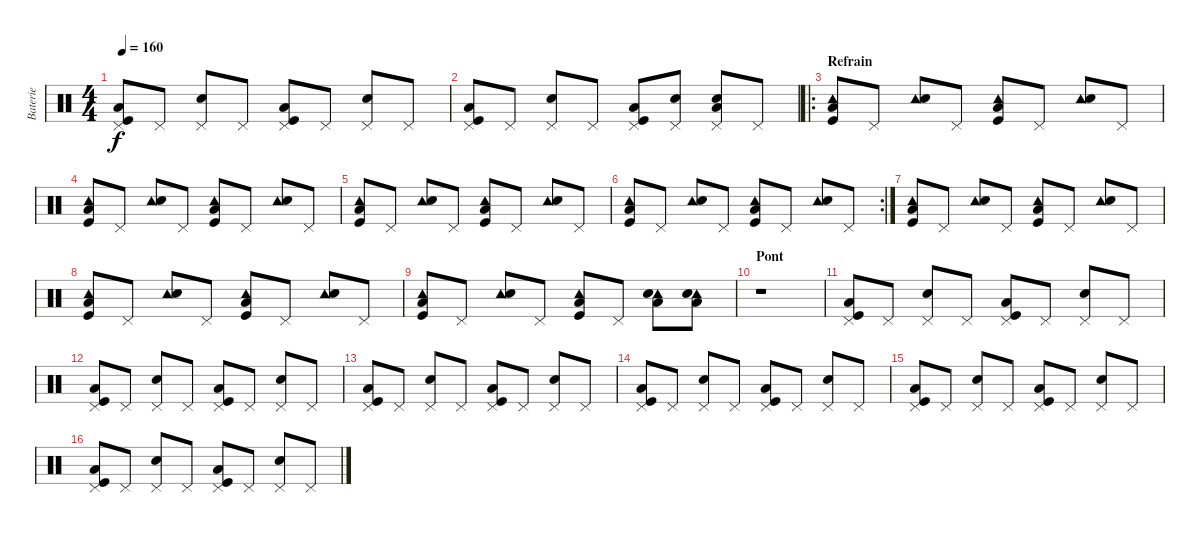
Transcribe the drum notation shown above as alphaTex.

\track ("Baterie" "Baterie") {instrument percussion}
\staff {score}
\articulation defaults
\ts (4 4)
\tempo 160
\clef neutral
\ks c
("Pedal Hi-Hat (hit)" "Low Floor Tom (hit)" "Kick (hit)").8{dy f} "Pedal Hi-Hat (hit)".8 ("Pedal Hi-Hat (hit)" "Electric Snare (hit)").8 "Pedal Hi-Hat (hit)".8 ("Pedal Hi-Hat (hit)" "Low Floor Tom (hit)" "Kick (hit)").8 "Pedal Hi-Hat (hit)".8 ("Pedal Hi-Hat (hit)" "Electric Snare (hit)").8 "Pedal Hi-Hat (hit)".8 |
("Pedal Hi-Hat (hit)" "Low Floor Tom (hit)" "Kick (hit)").8 "Pedal Hi-Hat (hit)".8 ("Pedal Hi-Hat (hit)" "Electric Snare (hit)").8 "Pedal Hi-Hat (hit)".8 ("Pedal Hi-Hat (hit)" "Low Floor Tom (hit)" "Kick (hit)").8 ("Pedal Hi-Hat (hit)" "Electric Snare (hit)").8 ("Pedal Hi-Hat (hit)" "Electric Snare (hit)" "Low Floor Tom (hit)").8 "Pedal Hi-Hat (hit)".8 |
\ro
\section ("" "Refrain")
("Tambourine (hit)" "Low Floor Tom (hit)" "Kick (hit)").8 "Pedal Hi-Hat (hit)".8 ("Tambourine (hit)" "Electric Snare (hit)").8 "Pedal Hi-Hat (hit)".8 ("Tambourine (hit)" "Low Floor Tom (hit)" "Kick (hit)").8 "Pedal Hi-Hat (hit)".8 ("Tambourine (hit)" "Electric Snare (hit)").8 "Pedal Hi-Hat (hit)".8 |
("Tambourine (hit)" "Low Floor Tom (hit)" "Kick (hit)").8 "Pedal Hi-Hat (hit)".8 ("Tambourine (hit)" "Electric Snare (hit)").8 "Pedal Hi-Hat (hit)".8 ("Tambourine (hit)" "Low Floor Tom (hit)" "Kick (hit)").8 "Pedal Hi-Hat (hit)".8 ("Tambourine (hit)" "Electric Snare (hit)").8 "Pedal Hi-Hat (hit)".8 |
("Tambourine (hit)" "Low Floor Tom (hit)" "Kick (hit)").8 "Pedal Hi-Hat (hit)".8 ("Tambourine (hit)" "Electric Snare (hit)").8 "Pedal Hi-Hat (hit)".8 ("Tambourine (hit)" "Low Floor Tom (hit)" "Kick (hit)").8 "Pedal Hi-Hat (hit)".8 ("Tambourine (hit)" "Electric Snare (hit)").8 "Pedal Hi-Hat (hit)".8 |
\rc 2
("Tambourine (hit)" "Low Floor Tom (hit)" "Kick (hit)").8 "Pedal Hi-Hat (hit)".8 ("Tambourine (hit)" "Electric Snare (hit)").8 "Pedal Hi-Hat (hit)".8 ("Tambourine (hit)" "Low Floor Tom (hit)" "Kick (hit)").8 "Pedal Hi-Hat (hit)".8 ("Tambourine (hit)" "Electric Snare (hit)").8 "Pedal Hi-Hat (hit)".8 |
("Tambourine (hit)" "Low Floor Tom (hit)" "Kick (hit)").8 "Pedal Hi-Hat (hit)".8 ("Tambourine (hit)" "Electric Snare (hit)").8 "Pedal Hi-Hat (hit)".8 ("Tambourine (hit)" "Low Floor Tom (hit)" "Kick (hit)").8 "Pedal Hi-Hat (hit)".8 ("Tambourine (hit)" "Electric Snare (hit)").8 "Pedal Hi-Hat (hit)".8 |
("Tambourine (hit)" "Low Floor Tom (hit)" "Kick (hit)").8 "Pedal Hi-Hat (hit)".8 ("Tambourine (hit)" "Electric Snare (hit)").8 "Pedal Hi-Hat (hit)".8 ("Tambourine (hit)" "Low Floor Tom (hit)" "Kick (hit)").8 "Pedal Hi-Hat (hit)".8 ("Tambourine (hit)" "Electric Snare (hit)").8 "Pedal Hi-Hat (hit)".8 |
("Tambourine (hit)" "Low Floor Tom (hit)" "Kick (hit)").8 "Pedal Hi-Hat (hit)".8 ("Tambourine (hit)" "Electric Snare (hit)").8 "Pedal Hi-Hat (hit)".8 ("Tambourine (hit)" "Low Floor Tom (hit)" "Kick (hit)").8 "Pedal Hi-Hat (hit)".8 ("Tambourine (hit)" "Electric Snare (hit)" "Low Floor Tom (hit)").8 ("Tambourine (hit)" "Electric Snare (hit)" "Low Floor Tom (hit)").8 |
\section ("" "Pont")
r.1 |
("Pedal Hi-Hat (hit)" "Low Floor Tom (hit)" "Kick (hit)").8 "Pedal Hi-Hat (hit)".8 ("Pedal Hi-Hat (hit)" "Electric Snare (hit)").8 "Pedal Hi-Hat (hit)".8 ("Pedal Hi-Hat (hit)" "Low Floor Tom (hit)" "Kick (hit)").8 "Pedal Hi-Hat (hit)".8 ("Pedal Hi-Hat (hit)" "Electric Snare (hit)").8 "Pedal Hi-Hat (hit)".8 |
("Pedal Hi-Hat (hit)" "Low Floor Tom (hit)" "Kick (hit)").8 "Pedal Hi-Hat (hit)".8 ("Pedal Hi-Hat (hit)" "Electric Snare (hit)").8 "Pedal Hi-Hat (hit)".8 ("Pedal Hi-Hat (hit)" "Low Floor Tom (hit)" "Kick (hit)").8 "Pedal Hi-Hat (hit)".8 ("Pedal Hi-Hat (hit)" "Electric Snare (hit)").8 "Pedal Hi-Hat (hit)".8 |
("Pedal Hi-Hat (hit)" "Low Floor Tom (hit)" "Kick (hit)").8 "Pedal Hi-Hat (hit)".8 ("Pedal Hi-Hat (hit)" "Electric Snare (hit)").8 "Pedal Hi-Hat (hit)".8 ("Pedal Hi-Hat (hit)" "Low Floor Tom (hit)" "Kick (hit)").8 "Pedal Hi-Hat (hit)".8 ("Pedal Hi-Hat (hit)" "Electric Snare (hit)").8 "Pedal Hi-Hat (hit)".8 |
("Pedal Hi-Hat (hit)" "Low Floor Tom (hit)" "Kick (hit)").8 "Pedal Hi-Hat (hit)".8 ("Pedal Hi-Hat (hit)" "Electric Snare (hit)").8 "Pedal Hi-Hat (hit)".8 ("Pedal Hi-Hat (hit)" "Low Floor Tom (hit)" "Kick (hit)").8 "Pedal Hi-Hat (hit)".8 ("Pedal Hi-Hat (hit)" "Electric Snare (hit)").8 "Pedal Hi-Hat (hit)".8 |
("Pedal Hi-Hat (hit)" "Low Floor Tom (hit)" "Kick (hit)").8 "Pedal Hi-Hat (hit)".8 ("Pedal Hi-Hat (hit)" "Electric Snare (hit)").8 "Pedal Hi-Hat (hit)".8 ("Pedal Hi-Hat (hit)" "Low Floor Tom (hit)" "Kick (hit)").8 "Pedal Hi-Hat (hit)".8 ("Pedal Hi-Hat (hit)" "Electric Snare (hit)").8 "Pedal Hi-Hat (hit)".8 |
("Pedal Hi-Hat (hit)" "Low Floor Tom (hit)" "Kick (hit)").8 "Pedal Hi-Hat (hit)".8 ("Pedal Hi-Hat (hit)" "Electric Snare (hit)").8 "Pedal Hi-Hat (hit)".8 ("Pedal Hi-Hat (hit)" "Low Floor Tom (hit)" "Kick (hit)").8 "Pedal Hi-Hat (hit)".8 ("Pedal Hi-Hat (hit)" "Electric Snare (hit)").8 "Pedal Hi-Hat (hit)".8
